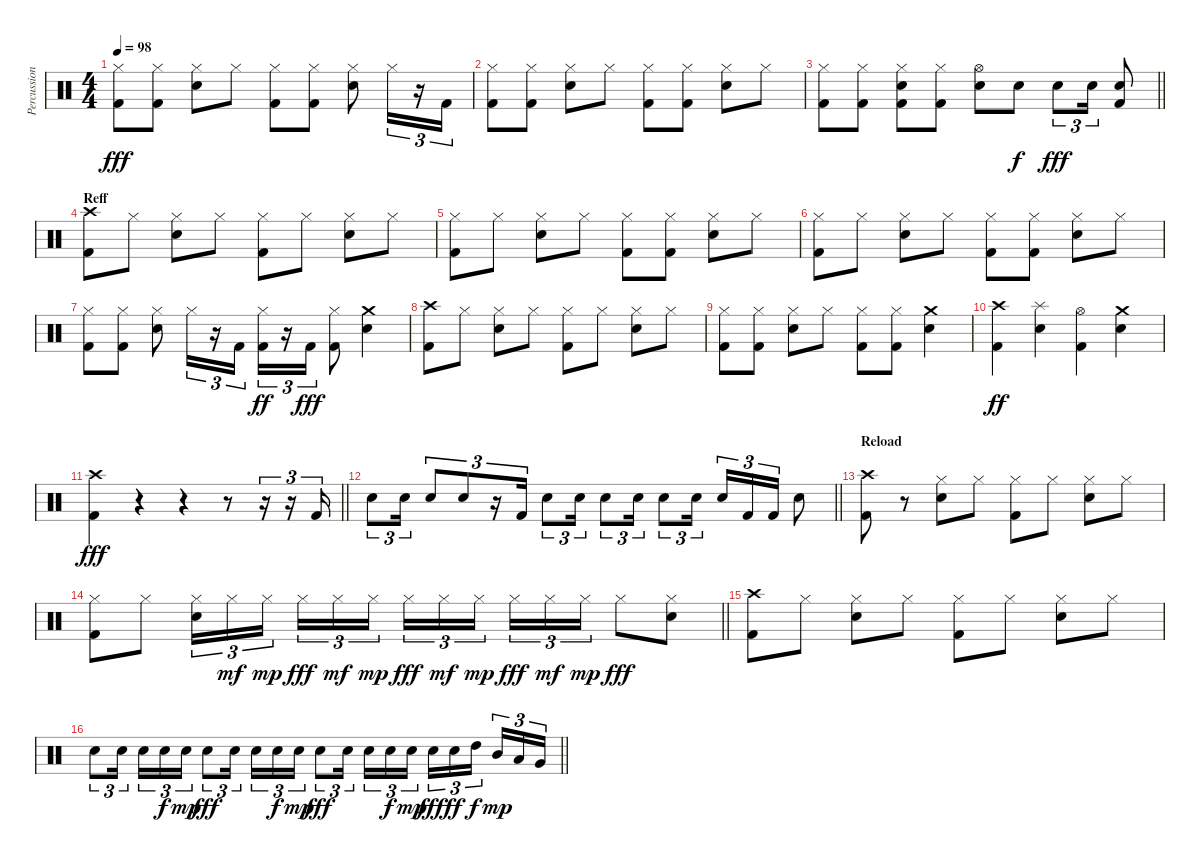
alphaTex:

\track ("Percussion" "Percussion") {instrument percussion}
\staff {score}
\articulation defaults
\ts (4 4)
\tempo 98
\clef neutral
\ks c
("Hi-Hat (closed)" "Kick (hit) 2").8{dy fff} ("Hi-Hat (closed)" "Kick (hit) 2").8 ("Hi-Hat (closed)" "Snare (hit) 2").8 "Hi-Hat (closed)".8 ("Hi-Hat (closed)" "Kick (hit) 2").8 ("Hi-Hat (closed)" "Kick (hit) 2").8 ("Hi-Hat (closed)" "Snare (hit) 2").8 "Hi-Hat (closed)".16{tu (3 2)} r.16{tu (3 2)} "Kick (hit) 2".16{tu (3 2)} |
("Hi-Hat (closed)" "Kick (hit) 2").8 ("Hi-Hat (closed)" "Kick (hit) 2").8 ("Hi-Hat (closed)" "Snare (hit) 2").8 "Hi-Hat (closed)".8 ("Hi-Hat (closed)" "Kick (hit) 2").8 ("Hi-Hat (closed)" "Kick (hit) 2").8 ("Hi-Hat (closed)" "Snare (hit) 2").8 "Hi-Hat (closed)".8 |
\barLineRight lightlight
("Hi-Hat (closed)" "Kick (hit) 2").8 ("Hi-Hat (closed)" "Kick (hit) 2").8 ("Hi-Hat (closed)" "Snare (hit) 2" "Kick (hit) 2").8 ("Hi-Hat (closed)" "Kick (hit) 2").8 ("Hi-Hat (open)" "Snare (hit) 2").8 "Snare (hit) 2".8{dy f} "Snare (hit) 2".8{tu (3 2) dy fff} "Snare (hit) 2".16{tu (3 2)} ("Snare (hit) 2" "Kick (hit) 2").8 |
\section ("" "Reff")
("Crash high (hit)" "Kick (hit) 2").8 "Hi-Hat (closed)".8 ("Hi-Hat (closed)" "Snare (hit) 2").8 "Hi-Hat (closed)".8 ("Hi-Hat (closed)" "Kick (hit) 2").8 "Hi-Hat (closed)".8 ("Hi-Hat (closed)" "Snare (hit) 2").8 "Hi-Hat (closed)".8 |
("Hi-Hat (closed)" "Kick (hit) 2").8 "Hi-Hat (closed)".8 ("Hi-Hat (closed)" "Snare (hit) 2").8 "Hi-Hat (closed)".8 ("Hi-Hat (closed)" "Kick (hit) 2").8 ("Hi-Hat (closed)" "Kick (hit) 2").8 ("Hi-Hat (closed)" "Snare (hit) 2").8 "Hi-Hat (closed)".8 |
("Hi-Hat (closed)" "Kick (hit) 2").8 "Hi-Hat (closed)".8 ("Hi-Hat (closed)" "Snare (hit) 2").8 "Hi-Hat (closed)".8 ("Hi-Hat (closed)" "Kick (hit) 2").8 ("Hi-Hat (closed)" "Kick (hit) 2").8 ("Hi-Hat (closed)" "Snare (hit) 2").8 "Hi-Hat (closed)".8 |
("Hi-Hat (closed)" "Kick (hit) 2").8 ("Hi-Hat (closed)" "Kick (hit) 2").8 ("Hi-Hat (closed)" "Snare (hit) 2").8 "Hi-Hat (closed)".16{tu (3 2)} r.16{tu (3 2)} "Kick (hit) 2".16{tu (3 2)} ("Hi-Hat (closed)" "Kick (hit) 2").16{tu (3 2) dy ff} r.16{tu (3 2)} "Kick (hit) 2".16{tu (3 2) dy fff} ("Hi-Hat (closed)" "Kick (hit) 2").8 ("Crash medium (hit)" "Snare (hit) 2").4 |
("Crash high (hit)" "Kick (hit) 2").8 "Hi-Hat (closed)".8 ("Hi-Hat (closed)" "Snare (hit) 2").8 "Hi-Hat (closed)".8 ("Hi-Hat (closed)" "Kick (hit) 2").8 "Hi-Hat (closed)".8 ("Hi-Hat (closed)" "Snare (hit) 2").8 "Hi-Hat (closed)".8 |
("Hi-Hat (closed)" "Kick (hit) 2").8 ("Hi-Hat (closed)" "Kick (hit) 2").8 ("Hi-Hat (closed)" "Snare (hit) 2").8 "Hi-Hat (closed)".8 ("Hi-Hat (closed)" "Kick (hit) 2").8 ("Hi-Hat (closed)" "Kick (hit) 2").8 ("Crash medium (hit)" "Snare (hit) 2").4 |
("Crash high (hit)" "Kick (hit) 2").4{dy ff} ("Splash (hit)" "Snare (hit) 2").4 ("Hi-Hat (open)" "Kick (hit) 2").4 ("Crash medium (hit)" "Snare (hit) 2").4 |
\barLineRight lightlight
("Crash high (hit)" "Kick (hit) 2").4{dy fff} r.4 r.4 r.8 r.16{tu (3 2)} r.16{tu (3 2)} "Kick (hit) 2".16{tu (3 2)} |
\barLineRight lightlight "Snare (hit) 2".8{tu (3 2)} "Snare (hit) 2".16{tu (3 2)} "Snare (hit) 2".8{tu (3 2)} "Snare (hit) 2".8{tu (3 2)}
r.16{tu (3 2)} "Kick (hit) 2".16{tu (3 2)} "Snare (hit) 2".8{tu (3 2)} "Snare (hit) 2".16{tu (3 2)} "Snare (hit) 2".8{tu (3 2)} "Snare (hit) 2".16{tu (3 2)} "Snare (hit) 2".8{tu (3 2)} "Snare (hit) 2".16{tu (3 2)} "Snare (hit) 2".16{tu (3 2)} "Kick (hit) 2".16{tu (3 2)} "Kick (hit) 2".16{tu (3 2)} "Snare (hit) 2".8 |
\section ("" "Reload")
("Crash high (hit)" "Kick (hit) 2").8 r.8 ("Hi-Hat (closed)" "Snare (hit) 2").8 "Hi-Hat (closed)".8 ("Hi-Hat (closed)" "Kick (hit) 2").8 "Hi-Hat (closed)".8 ("Hi-Hat (closed)" "Snare (hit) 2").8 "Hi-Hat (closed)".8 |
\barLineRight lightlight
("Hi-Hat (closed)" "Kick (hit) 2").8 "Hi-Hat (closed)".8 ("Hi-Hat (closed)" "Snare (hit) 2").16{tu (3 2)} "Hi-Hat (closed)".16{tu (3 2) dy mf} "Hi-Hat (closed)".16{tu (3 2) dy mp beam splitsecondary} "Hi-Hat (closed)".16{tu (3 2) dy fff} "Hi-Hat (closed)".16{tu (3 2) dy mf} "Hi-Hat (closed)".16{tu (3 2) dy mp} "Hi-Hat (closed)".16{tu (3 2) dy fff} "Hi-Hat (closed)".16{tu (3 2) dy mf} "Hi-Hat (closed)".16{tu (3 2) dy mp beam splitsecondary} "Hi-Hat (closed)".16{tu (3 2) dy fff} "Hi-Hat (closed)".16{tu (3 2) dy mf} "Hi-Hat (closed)".16{tu (3 2) dy mp} "Hi-Hat (closed)".8{dy fff} ("Hi-Hat (closed)" "Snare (hit) 2").8 |
("Crash high (hit)" "Kick (hit) 2").8 "Hi-Hat (closed)".8 ("Hi-Hat (closed)" "Snare (hit) 2").8 "Hi-Hat (closed)".8 ("Hi-Hat (closed)" "Kick (hit) 2").8 "Hi-Hat (closed)".8 ("Hi-Hat (closed)" "Snare (hit) 2").8 "Hi-Hat (closed)".8 |
\barLineRight lightlight "Snare (hit) 2".8{tu (3 2)} "Snare (hit) 2".16{tu (3 2) beam splitsecondary} "Snare (hit) 2".16{tu (3 2)} "Snare (hit) 2".16{tu (3 2) dy f} "Snare (hit) 2".16{tu (3 2) dy mp} "Snare (hit) 2".8{tu (3 2) dy fff} "Snare (hit) 2".16{tu (3 2) beam splitsecondary} "Snare (hit) 2".16{tu (3 2)} "Snare (hit) 2".16{tu (3 2) dy f} "Snare (hit) 2".16{tu (3 2) dy mp} "Snare (hit) 2".8{tu (3 2) dy fff} "Snare (hit) 2".16{tu (3 2) beam splitsecondary} "Snare (hit) 2".16{tu (3 2)} "Snare (hit) 2".16{tu (3 2) dy f} "Snare (hit) 2".16{tu (3 2) dy mp} "Snare (hit) 2".16{tu (3 2) dy fff} "Snare (hit) 2".16{tu (3 2) dy ff} "High Tom (hit)".16{tu (3 2) dy f beam splitsecondary} "Mid Tom (hit)".16{tu (3 2) dy mp} "Low Tom (hit)".16{tu (3 2)} "Very Low Tom (hit)".16{tu (3 2)}
